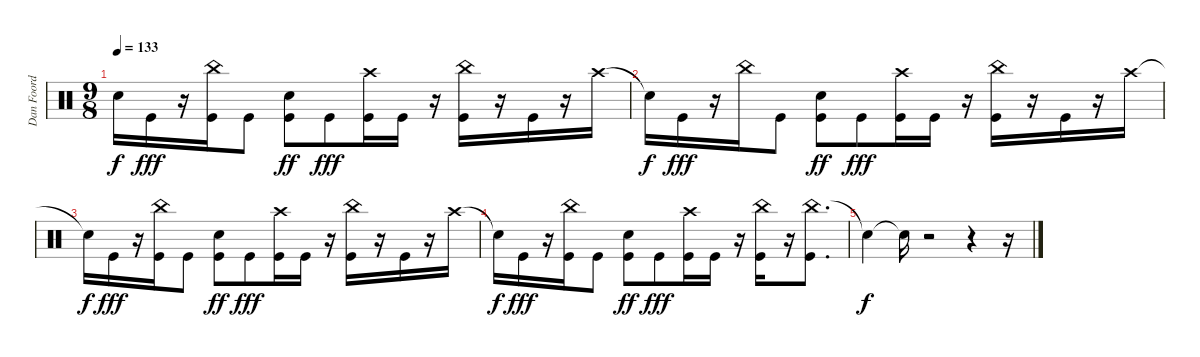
\track ("Dan Foord 2" "Dan Foord ") {instrument percussion}
\staff {score}
\articulation defaults
\ts (9 8)
\tempo 133
\clef neutral
\ks c "Snare (hit)"{t}.16{dy f} "Kick (hit)".16{dy fff}
r.16 ("Kick (hit)" "China (hit)").16 "Kick (hit)".8 ("Kick (hit)" "Snare (hit) 2").8{dy ff} "Kick (hit)".8{dy fff} ("Kick (hit)" "Crash high (hit)").16 "Kick (hit)".16 r.16 ("Kick (hit)" "China (hit)").16 r.16 "Kick (hit)".16 r.16 "Crash high (hit)".16 |
"Snare (hit)"{t}.16{dy f} "Kick (hit)".16{dy fff} r.16 "China (hit)".16 "Kick (hit)".8 ("Kick (hit)" "Snare (hit) 2").8{dy ff} "Kick (hit)".8{dy fff} ("Kick (hit)" "Crash high (hit)").16 "Kick (hit)".16 r.16 ("Kick (hit)" "China (hit)").16 r.16 "Kick (hit)".16 r.16 "Crash high (hit)".16 |
"Snare (hit)"{t}.16{dy f} "Kick (hit)".16{dy fff} r.16 ("Kick (hit)" "China (hit)").16 "Kick (hit)".8 ("Kick (hit)" "Snare (hit) 2").8{dy ff} "Kick (hit)".8{dy fff} ("Kick (hit)" "Crash high (hit)").16 "Kick (hit)".16 r.16 ("Kick (hit)" "China (hit)").16 r.16 "Kick (hit)".16 r.16 "Crash high (hit)".16 |
"Snare (hit)"{t}.16{dy f} "Kick (hit)".16{dy fff} r.16 ("Kick (hit)" "China (hit)").16 "Kick (hit)".8 ("Kick (hit)" "Snare (hit) 2").8{dy ff} "Kick (hit)".8{dy fff} ("Kick (hit)" "Crash high (hit)").16 "Kick (hit)".16 r.16 ("Kick (hit)" "China (hit)").16 r.16 ("China (hit)" "Kick (hit)").8{d} |
"Snare (hit)"{t}.4{dy f} "Snare (hit)"{t}.16 r.2 r.4 r.16
